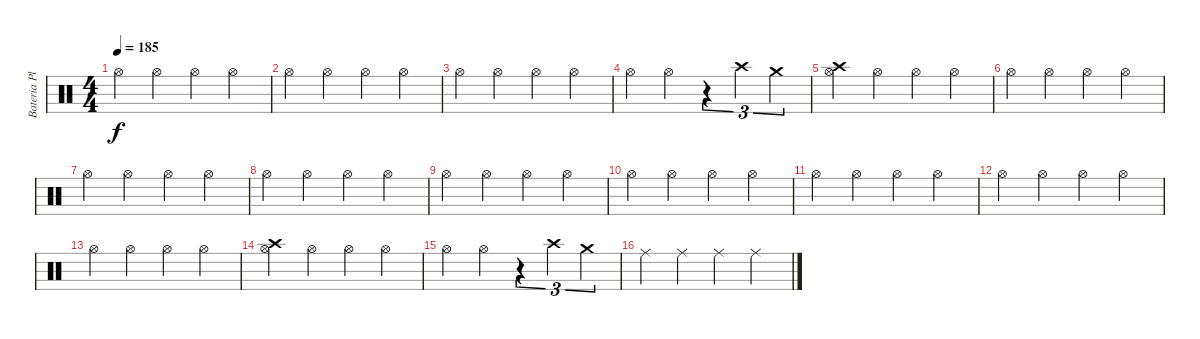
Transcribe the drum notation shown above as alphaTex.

\track ("Bateria Platos" "Bateria Pl") {instrument percussion}
\staff {score}
\articulation defaults
\ts (4 4)
\tempo 185
\clef neutral
\ks c "Hi-Hat (open)".4{dy f} "Hi-Hat (open)".4 "Hi-Hat (open)".4 "Hi-Hat (open)".4
|
"Hi-Hat (open)".4 "Hi-Hat (open)".4 "Hi-Hat (open)".4 "Hi-Hat (open)".4 |
"Hi-Hat (open)".4 "Hi-Hat (open)".4 "Hi-Hat (open)".4 "Hi-Hat (open)".4 |
"Hi-Hat (open)".4 "Hi-Hat (open)".4 r.4{tu (3 2)} "Crash high (hit)".4{tu (3 2)} "Crash medium (hit)".4{tu (3 2)} |
("Crash high (hit)" "Hi-Hat (open)").4 "Hi-Hat (open)".4 "Hi-Hat (open)".4 "Hi-Hat (open)".4 |
"Hi-Hat (open)".4 "Hi-Hat (open)".4 "Hi-Hat (open)".4 "Hi-Hat (open)".4 |
"Hi-Hat (open)".4 "Hi-Hat (open)".4 "Hi-Hat (open)".4 "Hi-Hat (open)".4 |
"Hi-Hat (open)".4 "Hi-Hat (open)".4 "Hi-Hat (open)".4 "Hi-Hat (open)".4 |
"Hi-Hat (open)".4 "Hi-Hat (open)".4 "Hi-Hat (open)".4 "Hi-Hat (open)".4 |
"Hi-Hat (open)".4 "Hi-Hat (open)".4 "Hi-Hat (open)".4 "Hi-Hat (open)".4 |
"Hi-Hat (open)".4 "Hi-Hat (open)".4 "Hi-Hat (open)".4 "Hi-Hat (open)".4 |
"Hi-Hat (open)".4 "Hi-Hat (open)".4 "Hi-Hat (open)".4 "Hi-Hat (open)".4 |
"Hi-Hat (open)".4 "Hi-Hat (open)".4 "Hi-Hat (open)".4 "Hi-Hat (open)".4 |
("Crash high (hit)" "Hi-Hat (open)").4 "Hi-Hat (open)".4 "Hi-Hat (open)".4 "Hi-Hat (open)".4 |
"Hi-Hat (open)".4 "Hi-Hat (open)".4 r.4{tu (3 2)} "Crash high (hit)".4{tu (3 2)} "Crash medium (hit)".4{tu (3 2)} |
"Ride (middle)".4 "Ride (middle)".4 "Ride (middle)".4 "Ride (middle)".4
